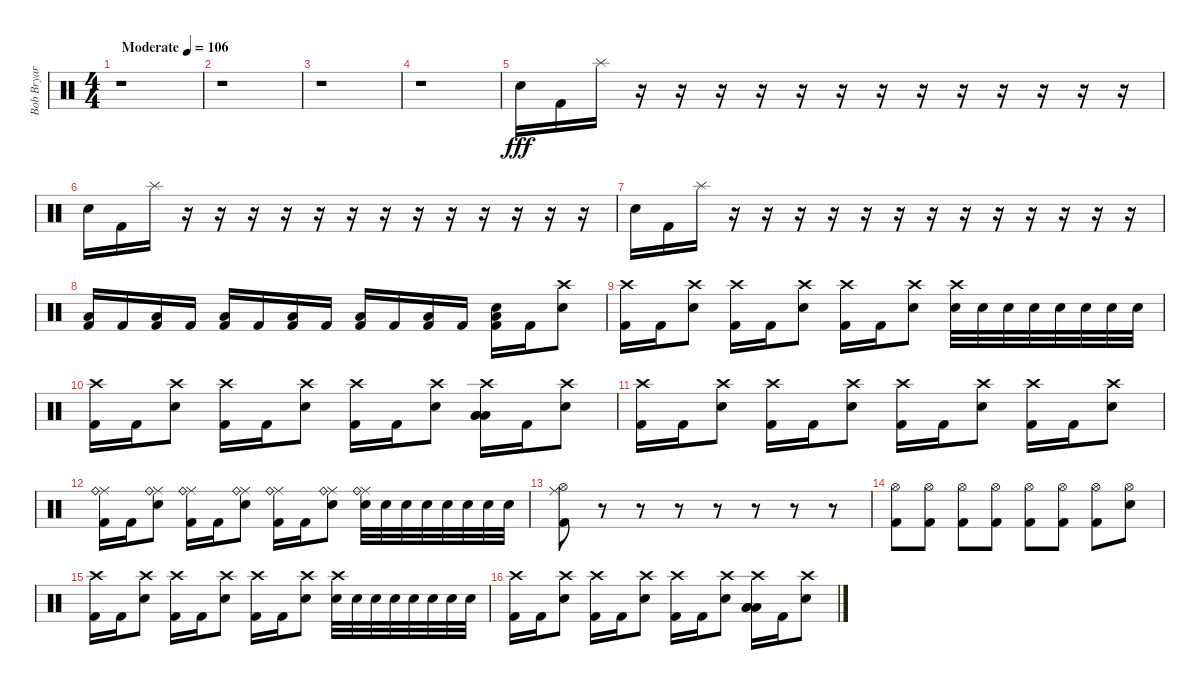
\track ("Bob Bryar" "Bob Bryar") {instrument percussion}
\staff {score}
\articulation defaults
\ts (4 4)
\tempo (106 "Moderate")
\clef neutral
\ks c
r.1{dy fff} |
r.1 |
r.1 |
r.1 |
"Electric Snare (hit)".16 "Kick (hit) 2".16 "Splash (hit)".16 r.16 r.16 r.16 r.16 r.16 r.16 r.16 r.16 r.16 r.16 r.16 r.16 r.16 |
"Electric Snare (hit)".16 "Kick (hit) 2".16 "Splash (hit)".16 r.16 r.16 r.16 r.16 r.16 r.16 r.16 r.16 r.16 r.16 r.16 r.16 r.16 |
"Electric Snare (hit)".16 "Kick (hit) 2".16 "Splash (hit)".16 r.16 r.16 r.16 r.16 r.16 r.16 r.16 r.16 r.16 r.16 r.16 r.16 r.16 |
("Kick (hit) 2" "Low Tom (hit)").16 "Kick (hit) 2".16 ("Kick (hit) 2" "Low Tom (hit)").16 "Kick (hit) 2".16 ("Kick (hit) 2" "Low Tom (hit)").16 "Kick (hit) 2".16 ("Kick (hit) 2" "Low Tom (hit)").16 "Kick (hit) 2".16 ("Kick (hit) 2" "Low Tom (hit)").16 "Kick (hit) 2".16 ("Kick (hit) 2" "Low Tom (hit)").16 "Kick (hit) 2".16 ("Kick (hit) 2" "Low Tom (hit)" "Electric Snare (hit)").16 "Kick (hit) 2".16 ("Electric Snare (hit)" "Crash high (hit)").8 |
("Kick (hit) 2" "Crash high (hit)").16 "Kick (hit) 2".16 ("Electric Snare (hit)" "Crash high (hit)").8 ("Kick (hit) 2" "Crash high (hit)").16 "Kick (hit) 2".16 ("Electric Snare (hit)" "Crash high (hit)").8 ("Kick (hit) 2" "Crash high (hit)").16 "Kick (hit) 2".16 ("Electric Snare (hit)" "Crash high (hit)").8 ("Electric Snare (hit)" "Crash high (hit)").32 "Electric Snare (hit)".32 "Electric Snare (hit)".32 "Electric Snare (hit)".32 "Electric Snare (hit)".32 "Electric Snare (hit)".32 "Electric Snare (hit)".32 "Electric Snare (hit)".32 |
("Kick (hit) 2" "Crash high (hit)").16 "Kick (hit) 2".16 ("Electric Snare (hit)" "Crash high (hit)").8 ("Kick (hit) 2" "Crash high (hit)").16 "Kick (hit) 2".16 ("Electric Snare (hit)" "Crash high (hit)").8 ("Kick (hit) 2" "Crash high (hit)").16 "Kick (hit) 2".16 ("Electric Snare (hit)" "Crash high (hit)").8 ("Low Floor Tom (hit)" "Low Floor Tom (hit)" "Low Floor Tom (hit)" "Crash high (hit)").16 "Kick (hit) 2".16 ("Electric Snare (hit)" "Crash high (hit)").8 |
("Kick (hit) 2" "Crash high (hit)").16 "Kick (hit) 2".16 ("Electric Snare (hit)" "Crash high (hit)").8 ("Kick (hit) 2" "Crash high (hit)").16 "Kick (hit) 2".16 ("Electric Snare (hit)" "Crash high (hit)").8 ("Kick (hit) 2" "Crash high (hit)").16 "Kick (hit) 2".16 ("Electric Snare (hit)" "Crash high (hit)").8 ("Kick (hit) 2" "Crash high (hit)").16 "Kick (hit) 2".16 ("Electric Snare (hit)" "Crash high (hit)").8 |
("Kick (hit) 2" "Ride (middle)" "Ride (bell)").16 "Kick (hit) 2".16 ("Electric Snare (hit)" "Ride (middle)" "Ride (bell)").8 ("Kick (hit) 2" "Ride (middle)" "Ride (bell)").16 "Kick (hit) 2".16 ("Electric Snare (hit)" "Ride (middle)" "Ride (bell)").8 ("Kick (hit) 2" "Ride (middle)" "Ride (bell)").16 "Kick (hit) 2".16 ("Electric Snare (hit)" "Ride (middle)" "Ride (bell)").8 ("Electric Snare (hit)" "Ride (middle)" "Ride (bell)").32 "Electric Snare (hit)".32 "Electric Snare (hit)".32 "Electric Snare (hit)".32 "Electric Snare (hit)".32 "Electric Snare (hit)".32 "Electric Snare (hit)".32 "Electric Snare (hit)".32 |
("Kick (hit) 2" "Hi-Hat (open)" "Ride (middle)").8 r.8 r.8 r.8 r.8 r.8 r.8 r.8 |
("Kick (hit) 2" "Hi-Hat (open)").8 ("Kick (hit) 2" "Hi-Hat (open)").8 ("Kick (hit) 2" "Hi-Hat (open)").8 ("Kick (hit) 2" "Hi-Hat (open)").8 ("Kick (hit) 2" "Hi-Hat (open)").8 ("Kick (hit) 2" "Hi-Hat (open)").8 ("Kick (hit) 2" "Hi-Hat (open)").8 ("Electric Snare (hit)" "Hi-Hat (open)").8 |
("Kick (hit) 2" "Crash high (hit)").16 "Kick (hit) 2".16 ("Electric Snare (hit)" "Crash high (hit)").8 ("Kick (hit) 2" "Crash high (hit)").16 "Kick (hit) 2".16 ("Electric Snare (hit)" "Crash high (hit)").8 ("Kick (hit) 2" "Crash high (hit)").16 "Kick (hit) 2".16 ("Electric Snare (hit)" "Crash high (hit)").8 ("Electric Snare (hit)" "Crash high (hit)").32 "Electric Snare (hit)".32 "Electric Snare (hit)".32 "Electric Snare (hit)".32 "Electric Snare (hit)".32 "Electric Snare (hit)".32 "Electric Snare (hit)".32 "Electric Snare (hit)".32 |
("Kick (hit) 2" "Crash high (hit)").16 "Kick (hit) 2".16 ("Electric Snare (hit)" "Crash high (hit)").8 ("Kick (hit) 2" "Crash high (hit)").16 "Kick (hit) 2".16 ("Electric Snare (hit)" "Crash high (hit)").8 ("Kick (hit) 2" "Crash high (hit)").16 "Kick (hit) 2".16 ("Electric Snare (hit)" "Crash high (hit)").8 ("Low Floor Tom (hit)" "Low Floor Tom (hit)" "Low Floor Tom (hit)" "Crash high (hit)").16 "Kick (hit) 2".16 ("Electric Snare (hit)" "Crash high (hit)").8
